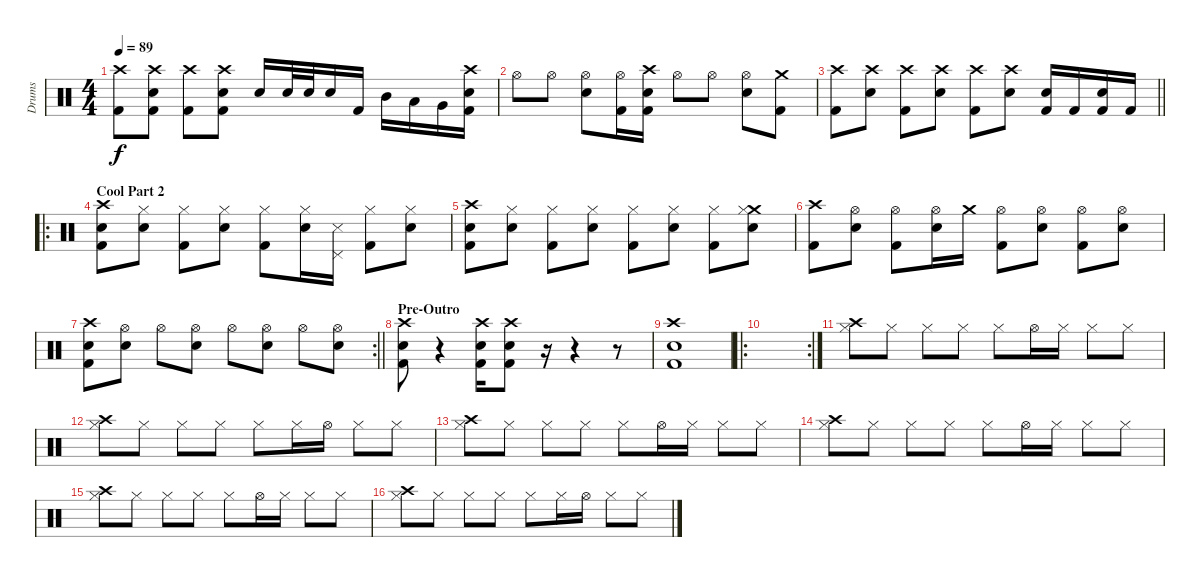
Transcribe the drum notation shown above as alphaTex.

\track ("Drums" "Drums") {instrument percussion}
\staff {score}
\articulation defaults
\ts (4 4)
\tempo 89
\clef neutral
\ks c
("Crash high (hit)" "Kick (hit) 2").8{dy f} ("Crash high (hit)" "Snare (hit) 2" "Kick (hit) 2").8 ("Crash high (hit)" "Kick (hit) 2").8 ("Crash high (hit)" "Snare (hit) 2" "Kick (hit) 2").8 "Snare (hit) 2".16 "Snare (hit) 2".32 "Snare (hit) 2".32 "Snare (hit) 2".16 "Kick (hit) 2".16 "Mid Tom (hit)".16 "Low Tom (hit)".16 "Very Low Tom (hit)".16 ("Crash high (hit)" "Snare (hit) 2" "Kick (hit) 2").16 |
"Hi-Hat (open)".8 "Hi-Hat (open)".8 ("Hi-Hat (open)" "Snare (hit) 2").8 ("Hi-Hat (open)" "Kick (hit) 2").16 ("Crash high (hit)" "Snare (hit) 2" "Kick (hit) 2").16 "Hi-Hat (open)".8 "Hi-Hat (open)".8 ("Hi-Hat (open)" "Snare (hit) 2").8 ("Crash medium (hit)" "Kick (hit) 2").8 |
\barLineRight lightlight
("Crash high (hit)" "Kick (hit) 2").8 ("Crash high (hit)" "Snare (hit) 2").8 ("Crash high (hit)" "Kick (hit) 2").8 ("Crash high (hit)" "Snare (hit) 2").8 ("Crash high (hit)" "Kick (hit) 2").8 ("Crash high (hit)" "Snare (hit) 2").8 ("Snare (hit) 2" "Kick (hit) 2").16 "Kick (hit) 2".16 ("Snare (hit) 2" "Kick (hit) 2").16 "Kick (hit) 2".16 |
\ro
\section ("" "Cool Part 2")
("Crash high (hit)" "Snare (hit) 2" "Kick (hit) 2").8 ("Hi-Hat (closed)" "Snare (hit) 2").8 ("Hi-Hat (closed)" "Kick (hit) 2").8 ("Hi-Hat (closed)" "Snare (hit) 2").8 ("Hi-Hat (closed)" "Kick (hit) 2").8 ("Hi-Hat (closed)" "Snare (hit) 2").16 ("Pedal Hi-Hat (hit)" "Snare (side stick) 3").16 ("Hi-Hat (closed)" "Kick (hit) 2").8 ("Hi-Hat (closed)" "Snare (hit) 2").8 |
("Crash high (hit)" "Snare (hit) 2" "Kick (hit) 2").8 ("Hi-Hat (closed)" "Snare (hit) 2").8 ("Hi-Hat (closed)" "Kick (hit) 2").8 ("Hi-Hat (closed)" "Snare (hit) 2").8 ("Hi-Hat (closed)" "Kick (hit) 2").8 ("Hi-Hat (closed)" "Snare (hit) 2").8 ("Hi-Hat (closed)" "Kick (hit) 2").8 ("Crash medium (hit)" "Hi-Hat (closed)" "Snare (hit) 2").8 |
("Crash high (hit)" "Kick (hit) 2").8 ("Hi-Hat (open)" "Snare (hit) 2").8 ("Hi-Hat (open)" "Kick (hit) 2").8 ("Hi-Hat (open)" "Snare (hit) 2").16 "Crash medium (hit)".16 ("Hi-Hat (open)" "Kick (hit) 2").8 ("Hi-Hat (open)" "Snare (hit) 2").8 ("Hi-Hat (open)" "Kick (hit) 2").8 ("Hi-Hat (open)" "Snare (hit) 2").8 |
\rc 2
\barLineRight lightlight
("Crash high (hit)" "Snare (hit) 2" "Kick (hit) 2").8 ("Hi-Hat (open)" "Snare (hit) 2").8 "Hi-Hat (open)".8 ("Hi-Hat (open)" "Snare (hit) 2").8 "Hi-Hat (open)".8 ("Hi-Hat (open)" "Snare (hit) 2").8 "Hi-Hat (open)".8 ("Hi-Hat (open)" "Snare (hit) 2").8 |
\section ("" "Pre-Outro")
("Crash high (hit)" "Snare (hit) 2" "Kick (hit) 2").8 r.4 ("Crash high (hit)" "Snare (hit) 2" "Kick (hit) 2").16 ("Crash high (hit)" "Snare (hit) 2" "Kick (hit) 2").8 r.16 r.4 r.8 |
("Crash high (hit)" "Snare (hit) 2" "Kick (hit) 2").1 |
\ro
\rc 2
|
("Crash high (hit)" "Hi-Hat (closed)").8 "Hi-Hat (closed)".8 "Hi-Hat (closed)".8 "Hi-Hat (closed)".8 "Hi-Hat (closed)".8 "Hi-Hat (open)".16 "Hi-Hat (closed)".16 "Hi-Hat (closed)".8 "Hi-Hat (closed)".8 |
("Crash high (hit)" "Hi-Hat (closed)").8 "Hi-Hat (closed)".8 "Hi-Hat (closed)".8 "Hi-Hat (closed)".8 "Hi-Hat (closed)".8 "Hi-Hat (closed)".16 "Hi-Hat (open)".16 "Hi-Hat (closed)".8 "Hi-Hat (closed)".8 |
("Crash high (hit)" "Hi-Hat (closed)").8 "Hi-Hat (closed)".8 "Hi-Hat (closed)".8 "Hi-Hat (closed)".8 "Hi-Hat (closed)".8 "Hi-Hat (open)".16 "Hi-Hat (closed)".16 "Hi-Hat (closed)".8 "Hi-Hat (closed)".8 |
("Crash high (hit)" "Hi-Hat (closed)").8 "Hi-Hat (closed)".8 "Hi-Hat (closed)".8 "Hi-Hat (closed)".8 "Hi-Hat (closed)".8 "Hi-Hat (open)".16 "Hi-Hat (closed)".16 "Hi-Hat (closed)".8 "Hi-Hat (closed)".8 |
("Crash high (hit)" "Hi-Hat (closed)").8 "Hi-Hat (closed)".8 "Hi-Hat (closed)".8 "Hi-Hat (closed)".8 "Hi-Hat (closed)".8 "Hi-Hat (open)".16 "Hi-Hat (closed)".16 "Hi-Hat (closed)".8 "Hi-Hat (closed)".8 |
("Crash high (hit)" "Hi-Hat (closed)").8 "Hi-Hat (closed)".8 "Hi-Hat (closed)".8 "Hi-Hat (closed)".8 "Hi-Hat (closed)".8 "Hi-Hat (closed)".16 "Hi-Hat (open)".16 "Hi-Hat (closed)".8 "Hi-Hat (closed)".8
